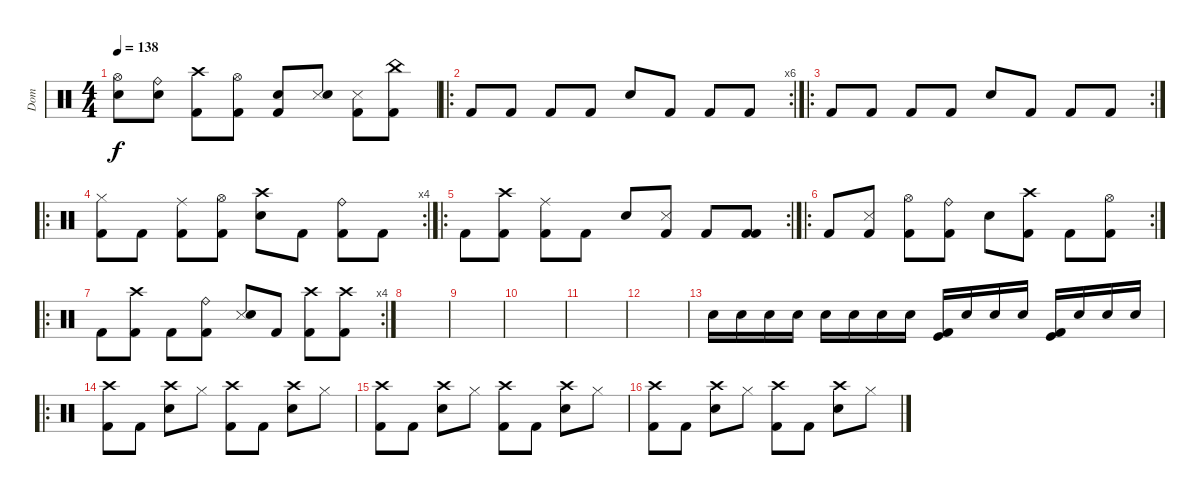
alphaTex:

\track ("Dom" "Dom") {instrument percussion}
\staff {score}
\articulation defaults
\ts (4 4)
\tempo 138
\clef neutral
\ks c
("Hi-Hat (open)" "Snare (hit) 2").8{dy f} ("Ride (bell)" "Snare (hit) 2").8 ("Crash high (hit)" "Kick (hit) 2").8 ("Hi-Hat (open)" "Kick (hit) 2").8 ("Kick (hit) 2" "Snare (hit) 2").8 ("Snare (side stick) 3" "Snare (hit) 2").8 ("Snare (side stick) 3" "Kick (hit) 2").8 ("China (hit)" "Kick (hit) 2").8 |
\ro
\rc 6 "Kick (hit) 2".8 "Kick (hit) 2".8 "Kick (hit) 2".8 "Kick (hit) 2".8 "Snare (hit) 2".8 "Kick (hit) 2".8 "Kick (hit) 2".8 "Kick (hit) 2".8
|
\ro
\rc 2 "Kick (hit) 2".8 "Kick (hit) 2".8 "Kick (hit) 2".8 "Kick (hit) 2".8 "Snare (hit) 2".8 "Kick (hit) 2".8 "Kick (hit) 2".8 "Kick (hit) 2".8
|
\ro
\rc 4
("Hi-Hat (closed)" "Kick (hit) 2").8 "Kick (hit) 2".8 ("Ride (middle)" "Kick (hit) 2").8 ("Hi-Hat (open)" "Kick (hit) 2").8 ("Crash high (hit)" "Snare (hit) 2").8 "Kick (hit) 2".8 ("Ride (bell)" "Kick (hit) 2").8 "Kick (hit) 2".8 |
\ro
\rc 2 "Kick (hit) 2".8
("Crash high (hit)" "Kick (hit) 2").8 ("Ride (middle)" "Kick (hit) 2").8 "Kick (hit) 2".8 "Snare (hit) 2".8 ("Kick (hit) 2" "Snare (side stick) 3").8 "Kick (hit) 2".8 ("Kick (hit) 2" "Kick (hit) 2").8 |
\ro
\rc 2 "Kick (hit) 2".8
("Snare (side stick) 3" "Kick (hit) 2").8 ("Hi-Hat (open)" "Kick (hit) 2").8 ("Ride (bell)" "Kick (hit) 2").8 "Snare (hit) 2".8 ("Crash high (hit)" "Kick (hit) 2").8 "Kick (hit) 2".8 ("Hi-Hat (open)" "Kick (hit) 2").8 |
\ro
\rc 4 "Kick (hit) 2".8
("Crash high (hit)" "Kick (hit) 2").8 "Kick (hit) 2".8 ("Ride (bell)" "Kick (hit) 2").8 ("Snare (side stick) 3" "Snare (hit) 2").8 "Kick (hit) 2".8 ("Crash high (hit)" "Kick (hit) 2").8 ("Crash high (hit)" "Kick (hit) 2").8 |
|
|
|
|
|
"Snare (hit) 2".16 "Snare (hit) 2".16 "Snare (hit) 2".16 "Snare (hit) 2".16 "Snare (hit) 2".16 "Snare (hit) 2".16 "Snare (hit) 2".16 "Snare (hit) 2".16 ("Kick (hit)" "Kick (hit) 2").16 "Snare (hit) 2".16 "Snare (hit) 2".16 "Snare (hit) 2".16 ("Kick (hit)" "Kick (hit) 2").16 "Snare (hit) 2".16 "Snare (hit) 2".16 "Snare (hit) 2".16 |
\ro
("Crash high (hit)" "Kick (hit) 2").8 "Kick (hit) 2".8 ("Crash high (hit)" "Snare (hit) 2").8 "Hi-Hat (closed)".8 ("Crash high (hit)" "Kick (hit) 2").8 "Kick (hit) 2".8 ("Crash high (hit)" "Snare (hit) 2").8 "Hi-Hat (closed)".8 |
("Crash high (hit)" "Kick (hit) 2").8 "Kick (hit) 2".8 ("Crash high (hit)" "Snare (hit) 2").8 "Hi-Hat (closed)".8 ("Crash high (hit)" "Kick (hit) 2").8 "Kick (hit) 2".8 ("Crash high (hit)" "Snare (hit) 2").8 "Hi-Hat (closed)".8 |
("Crash high (hit)" "Kick (hit) 2").8 "Kick (hit) 2".8 ("Crash high (hit)" "Snare (hit) 2").8 "Hi-Hat (closed)".8 ("Crash high (hit)" "Kick (hit) 2").8 "Kick (hit) 2".8 ("Crash high (hit)" "Snare (hit) 2").8 "Hi-Hat (closed)".8
